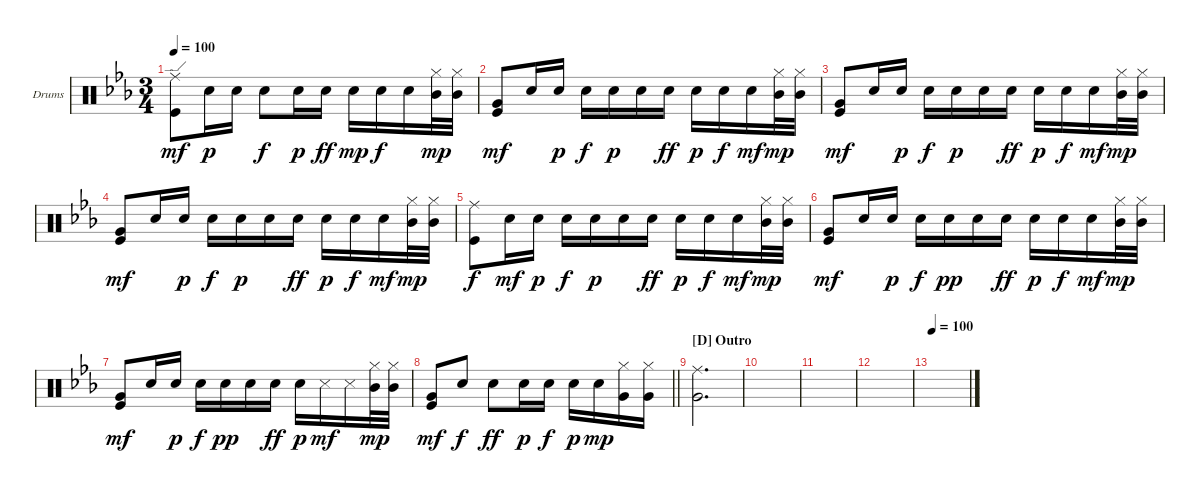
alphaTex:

\defaultSystemsLayout 4
\bracketExtendMode groupsimilarinstruments
\firstSystemTrackNameOrientation horizontal
\otherSystemsTrackNameOrientation horizontal
\track ("Drumkit" "Drums") {instrument percussion}
\staff {score}
\articulation defaults
\ts (3 4)
\tempo 100
\clef neutral
\ks cminor
("Kick (hit)" "Ride (edge)").8{dy mf} "Snare (hit) 2".16{dy p} "Snare (hit) 2".16 "Snare (hit) 2".8{dy f} "Snare (hit) 2".16{dy p} "Snare (hit) 2".16{dy ff} "Snare (hit) 2".16{dy mp} "Snare (hit) 2".16{dy f} "Snare (hit) 2".16 ("Mid Tom (hit)" "Hi-Hat (closed)").32{dy mp} ("Mid Tom (hit)" "Hi-Hat (closed)").32 |
("Kick (hit)" "Very Low Tom (hit)").8{dy mf} "Snare (hit) 2".16 "Snare (hit) 2".16{dy p} "Snare (hit) 2".16{dy f} "Snare (hit) 2".16{dy p} "Snare (hit) 2".16 "Snare (hit) 2".16{dy ff} "Snare (hit) 2".16{dy p} "Snare (hit) 2".16{dy f} "Snare (hit) 2".16{dy mf} ("Mid Tom (hit)" "Hi-Hat (closed)").32{dy mp} ("Mid Tom (hit)" "Hi-Hat (closed)").32 |
("Kick (hit)" "Very Low Tom (hit)").8{dy mf} "Snare (hit) 2".16 "Snare (hit) 2".16{dy p} "Snare (hit) 2".16{dy f} "Snare (hit) 2".16{dy p} "Snare (hit) 2".16 "Snare (hit) 2".16{dy ff} "Snare (hit) 2".16{dy p} "Snare (hit) 2".16{dy f} "Snare (hit) 2".16{dy mf} ("Mid Tom (hit)" "Hi-Hat (closed)").32{dy mp} ("Mid Tom (hit)" "Hi-Hat (closed)").32 |
("Kick (hit)" "Very Low Tom (hit)").8{dy mf} "Snare (hit) 2".16 "Snare (hit) 2".16{dy p} "Snare (hit) 2".16{dy f} "Snare (hit) 2".16{dy p} "Snare (hit) 2".16 "Snare (hit) 2".16{dy ff} "Snare (hit) 2".16{dy p} "Snare (hit) 2".16{dy f} "Snare (hit) 2".16{dy mf} ("Mid Tom (hit)" "Hi-Hat (closed)").32{dy mp} ("Mid Tom (hit)" "Hi-Hat (closed)").32 |
("Kick (hit)" "Ride (middle)").8{dy f} "Snare (hit) 2".16{dy mf} "Snare (hit) 2".16{dy p} "Snare (hit) 2".16{dy f} "Snare (hit) 2".16{dy p} "Snare (hit) 2".16 "Snare (hit) 2".16{dy ff} "Snare (hit) 2".16{dy p} "Snare (hit) 2".16{dy f} "Snare (hit) 2".16{dy mf} ("Mid Tom (hit)" "Hi-Hat (closed)").32{dy mp} ("Mid Tom (hit)" "Hi-Hat (closed)").32 |
("Kick (hit)" "Very Low Tom (hit)").8{dy mf} "Snare (hit) 2".16 "Snare (hit) 2".16{dy p} "Snare (hit) 2".16{dy f} "Snare (hit) 2".16{dy pp} "Snare (hit) 2".16 "Snare (hit) 2".16{dy ff} "Snare (hit) 2".16{dy p} "Snare (hit) 2".16{dy f} "Snare (hit) 2".16{dy mf} ("Mid Tom (hit)" "Hi-Hat (closed)").32{dy mp} ("Mid Tom (hit)" "Hi-Hat (closed)").32 |
("Kick (hit)" "Very Low Tom (hit)").8{dy mf} "Snare (hit) 2".16 "Snare (hit) 2".16{dy p} "Snare (hit) 2".16{dy f} "Snare (hit) 2".16{dy pp} "Snare (hit) 2".16 "Snare (hit) 2".16{dy ff} "Snare (hit) 2".16{dy p} "Snare (side stick) 3".16{dy mf} "Snare (side stick) 3".16 ("Mid Tom (hit)" "Hi-Hat (closed)").32{dy mp} ("Mid Tom (hit)" "Hi-Hat (closed)").32 |
\barLineRight lightlight
("Kick (hit)" "Very Low Tom (hit)").8{dy mf} "Snare (hit) 2".8{dy f} "Snare (hit) 2".8{dy ff} "Snare (hit) 2".16{dy p} "Snare (hit) 2".16{dy f} "Snare (hit) 2".16{dy p} "Snare (hit) 2".16{dy mp} ("Hi-Hat (closed)" "Very Low Tom (hit)").16 ("Hi-Hat (closed)" "Very Low Tom (hit)").16 |
\section ("D" "Outro")
("Very Low Tom (hit)" "Ride (middle)").2{d} |
|
|
|
\tempo 100
